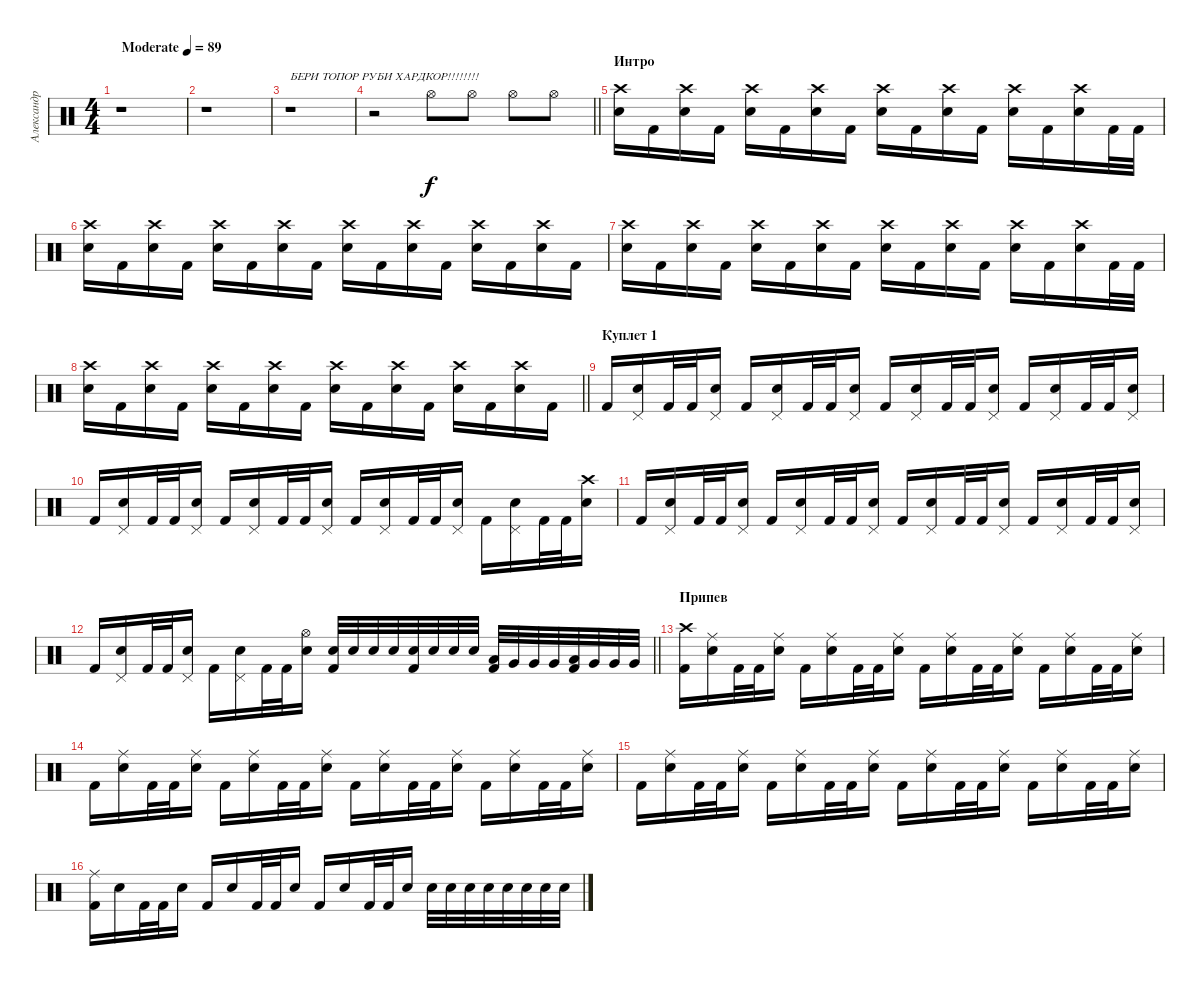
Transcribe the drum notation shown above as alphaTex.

\track ("Александр \"Поручик\" Щиголев" "Александр ") {instrument percussion}
\staff {score}
\articulation defaults
\ts (4 4)
\tempo (89 "Moderate")
\clef neutral
\ks c
r.1{dy f} |
r.1 |
r.1{txt "БЕРИ ТОПОР РУБИ ХАРДКОР!!!!!!!!"} |
\barLineRight lightlight
r.2 "Hi-Hat (open)".8 "Hi-Hat (open)".8 "Hi-Hat (open)".8 "Hi-Hat (open)".8 |
\section ("" "Интро")
("Crash high (hit)" "Electric Snare (hit)").16 "Kick (hit) 2".16 ("Crash high (hit)" "Electric Snare (hit)").16 "Kick (hit) 2".16 ("Crash high (hit)" "Electric Snare (hit)").16 "Kick (hit) 2".16 ("Crash high (hit)" "Electric Snare (hit)").16 "Kick (hit) 2".16 ("Crash high (hit)" "Electric Snare (hit)").16 "Kick (hit) 2".16 ("Crash high (hit)" "Electric Snare (hit)").16 "Kick (hit) 2".16 ("Crash high (hit)" "Electric Snare (hit)").16 "Kick (hit) 2".16 ("Crash high (hit)" "Electric Snare (hit)").16 "Kick (hit) 2".32 "Kick (hit) 2".32 |
("Crash high (hit)" "Electric Snare (hit)").16 "Kick (hit) 2".16 ("Crash high (hit)" "Electric Snare (hit)").16 "Kick (hit) 2".16 ("Crash high (hit)" "Electric Snare (hit)").16 "Kick (hit) 2".16 ("Crash high (hit)" "Electric Snare (hit)").16 "Kick (hit) 2".16 ("Crash high (hit)" "Electric Snare (hit)").16 "Kick (hit) 2".16 ("Crash high (hit)" "Electric Snare (hit)").16 "Kick (hit) 2".16 ("Crash high (hit)" "Electric Snare (hit)").16 "Kick (hit) 2".16 ("Crash high (hit)" "Electric Snare (hit)").16 "Kick (hit) 2".16 |
("Crash high (hit)" "Electric Snare (hit)").16 "Kick (hit) 2".16 ("Crash high (hit)" "Electric Snare (hit)").16 "Kick (hit) 2".16 ("Crash high (hit)" "Electric Snare (hit)").16 "Kick (hit) 2".16 ("Crash high (hit)" "Electric Snare (hit)").16 "Kick (hit) 2".16 ("Crash high (hit)" "Electric Snare (hit)").16 "Kick (hit) 2".16 ("Crash high (hit)" "Electric Snare (hit)").16 "Kick (hit) 2".16 ("Crash high (hit)" "Electric Snare (hit)").16 "Kick (hit) 2".16 ("Crash high (hit)" "Electric Snare (hit)").16 "Kick (hit) 2".32 "Kick (hit) 2".32 |
\barLineRight lightlight
("Crash high (hit)" "Electric Snare (hit)").16 "Kick (hit) 2".16 ("Crash high (hit)" "Electric Snare (hit)").16 "Kick (hit) 2".16 ("Crash high (hit)" "Electric Snare (hit)").16 "Kick (hit) 2".16 ("Crash high (hit)" "Electric Snare (hit)").16 "Kick (hit) 2".16 ("Crash high (hit)" "Electric Snare (hit)").16 "Kick (hit) 2".16 ("Crash high (hit)" "Electric Snare (hit)").16 "Kick (hit) 2".16 ("Crash high (hit)" "Electric Snare (hit)").16 "Kick (hit) 2".16 ("Crash high (hit)" "Electric Snare (hit)").16 "Kick (hit) 2".16 |
\section ("" "Куплет 1")
"Kick (hit) 2".16 ("Pedal Hi-Hat (hit)" "Electric Snare (hit)").16 "Kick (hit) 2".32 "Kick (hit) 2".32 ("Pedal Hi-Hat (hit)" "Electric Snare (hit)").16 "Kick (hit) 2".16 ("Pedal Hi-Hat (hit)" "Electric Snare (hit)").16 "Kick (hit) 2".32 "Kick (hit) 2".32 ("Pedal Hi-Hat (hit)" "Electric Snare (hit)").16 "Kick (hit) 2".16 ("Pedal Hi-Hat (hit)" "Electric Snare (hit)").16 "Kick (hit) 2".32 "Kick (hit) 2".32 ("Pedal Hi-Hat (hit)" "Electric Snare (hit)").16 "Kick (hit) 2".16 ("Pedal Hi-Hat (hit)" "Electric Snare (hit)").16 "Kick (hit) 2".32 "Kick (hit) 2".32 ("Pedal Hi-Hat (hit)" "Electric Snare (hit)").16 |
"Kick (hit) 2".16 ("Pedal Hi-Hat (hit)" "Electric Snare (hit)").16 "Kick (hit) 2".32 "Kick (hit) 2".32 ("Pedal Hi-Hat (hit)" "Electric Snare (hit)").16 "Kick (hit) 2".16 ("Pedal Hi-Hat (hit)" "Electric Snare (hit)").16 "Kick (hit) 2".32 "Kick (hit) 2".32 ("Pedal Hi-Hat (hit)" "Electric Snare (hit)").16 "Kick (hit) 2".16 ("Pedal Hi-Hat (hit)" "Electric Snare (hit)").16 "Kick (hit) 2".32 "Kick (hit) 2".32 ("Pedal Hi-Hat (hit)" "Electric Snare (hit)").16 "Kick (hit) 2".16 ("Pedal Hi-Hat (hit)" "Electric Snare (hit)").16 "Kick (hit) 2".32 "Kick (hit) 2".32 ("Crash high (hit)" "Electric Snare (hit)").16 |
"Kick (hit) 2".16 ("Pedal Hi-Hat (hit)" "Electric Snare (hit)").16 "Kick (hit) 2".32 "Kick (hit) 2".32 ("Pedal Hi-Hat (hit)" "Electric Snare (hit)").16 "Kick (hit) 2".16 ("Pedal Hi-Hat (hit)" "Electric Snare (hit)").16 "Kick (hit) 2".32 "Kick (hit) 2".32 ("Pedal Hi-Hat (hit)" "Electric Snare (hit)").16 "Kick (hit) 2".16 ("Pedal Hi-Hat (hit)" "Electric Snare (hit)").16 "Kick (hit) 2".32 "Kick (hit) 2".32 ("Pedal Hi-Hat (hit)" "Electric Snare (hit)").16 "Kick (hit) 2".16 ("Pedal Hi-Hat (hit)" "Electric Snare (hit)").16 "Kick (hit) 2".32 "Kick (hit) 2".32 ("Pedal Hi-Hat (hit)" "Electric Snare (hit)").16 |
\barLineRight lightlight "Kick (hit) 2".16
("Pedal Hi-Hat (hit)" "Electric Snare (hit)").16 "Kick (hit) 2".32 "Kick (hit) 2".32 ("Pedal Hi-Hat (hit)" "Electric Snare (hit)").16 "Kick (hit) 2".16 ("Pedal Hi-Hat (hit)" "Electric Snare (hit)").16 "Kick (hit) 2".32 "Kick (hit) 2".32 ("Hi-Hat (open)" "Electric Snare (hit)").16 ("Electric Snare (hit)" "Kick (hit) 2").32 "Electric Snare (hit)".32 "Electric Snare (hit)".32 "Electric Snare (hit)".32 ("Electric Snare (hit)" "Kick (hit) 2").32 "Electric Snare (hit)".32 "Electric Snare (hit)".32 "Electric Snare (hit)".32 ("Low Tom (hit)" "Kick (hit) 2").32 "Very Low Tom (hit)".32 "Very Low Tom (hit)".32 "Very Low Tom (hit)".32 ("Low Tom (hit)" "Kick (hit) 2").32 "Very Low Tom (hit)".32 "Very Low Tom (hit)".32 "Very Low Tom (hit)".32 |
\section ("" "Припев")
("Crash high (hit)" "Kick (hit) 2").16 ("Ride (middle)" "Electric Snare (hit)").16 "Kick (hit) 2".32 "Kick (hit) 2".32 ("Ride (middle)" "Electric Snare (hit)").16 "Kick (hit) 2".16 ("Ride (middle)" "Electric Snare (hit)").16 "Kick (hit) 2".32 "Kick (hit) 2".32 ("Ride (middle)" "Electric Snare (hit)").16 "Kick (hit) 2".16 ("Ride (middle)" "Electric Snare (hit)").16 "Kick (hit) 2".32 "Kick (hit) 2".32 ("Ride (middle)" "Electric Snare (hit)").16 "Kick (hit) 2".16 ("Ride (middle)" "Electric Snare (hit)").16 "Kick (hit) 2".32 "Kick (hit) 2".32 ("Ride (middle)" "Electric Snare (hit)").16 |
"Kick (hit) 2".16 ("Ride (middle)" "Electric Snare (hit)").16 "Kick (hit) 2".32 "Kick (hit) 2".32 ("Ride (middle)" "Electric Snare (hit)").16 "Kick (hit) 2".16 ("Ride (middle)" "Electric Snare (hit)").16 "Kick (hit) 2".32 "Kick (hit) 2".32 ("Ride (middle)" "Electric Snare (hit)").16 "Kick (hit) 2".16 ("Ride (middle)" "Electric Snare (hit)").16 "Kick (hit) 2".32 "Kick (hit) 2".32 ("Ride (middle)" "Electric Snare (hit)").16 "Kick (hit) 2".16 ("Ride (middle)" "Electric Snare (hit)").16 "Kick (hit) 2".32 "Kick (hit) 2".32 ("Ride (middle)" "Electric Snare (hit)").16 |
"Kick (hit) 2".16 ("Ride (middle)" "Electric Snare (hit)").16 "Kick (hit) 2".32 "Kick (hit) 2".32 ("Ride (middle)" "Electric Snare (hit)").16 "Kick (hit) 2".16 ("Ride (middle)" "Electric Snare (hit)").16 "Kick (hit) 2".32 "Kick (hit) 2".32 ("Ride (middle)" "Electric Snare (hit)").16 "Kick (hit) 2".16 ("Ride (middle)" "Electric Snare (hit)").16 "Kick (hit) 2".32 "Kick (hit) 2".32 ("Ride (middle)" "Electric Snare (hit)").16 "Kick (hit) 2".16 ("Ride (middle)" "Electric Snare (hit)").16 "Kick (hit) 2".32 "Kick (hit) 2".32 ("Ride (middle)" "Electric Snare (hit)").16 |
("Ride (middle)" "Kick (hit) 2").16 "Electric Snare (hit)".16 "Kick (hit) 2".32 "Kick (hit) 2".32 "Electric Snare (hit)".16 "Kick (hit) 2".16 "Electric Snare (hit)".16 "Kick (hit) 2".32 "Kick (hit) 2".32 "Electric Snare (hit)".16 "Kick (hit) 2".16 "Electric Snare (hit)".16 "Kick (hit) 2".32 "Kick (hit) 2".32 "Electric Snare (hit)".16 "Electric Snare (hit)".32 "Electric Snare (hit)".32 "Electric Snare (hit)".32 "Electric Snare (hit)".32 "Electric Snare (hit)".32 "Electric Snare (hit)".32 "Electric Snare (hit)".32 "Electric Snare (hit)".32
